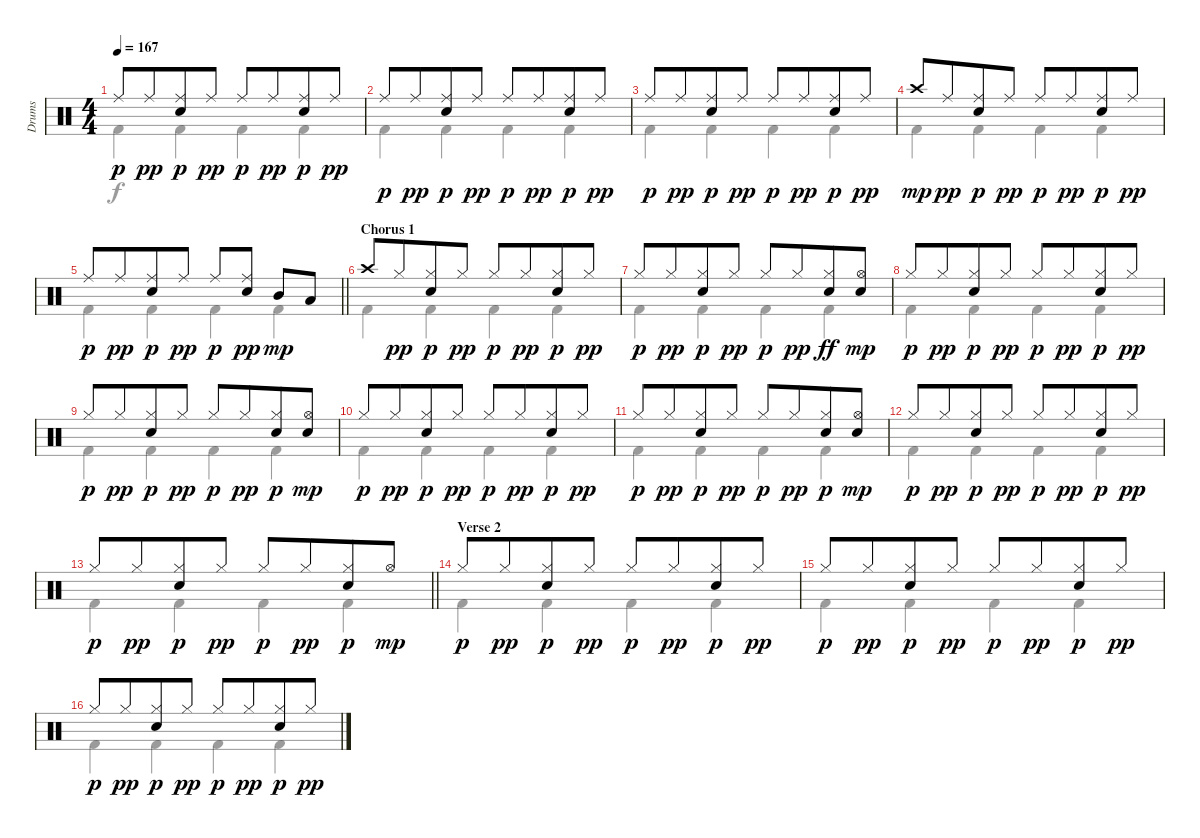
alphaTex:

\track ("Drums" "Drums") {instrument percussion}
\staff {score}
\articulation defaults
\voice
\ts (4 4)
\tempo 167
\clef neutral
\ks aminor "Ride (middle)".8{dy p} "Ride (middle)".8{dy pp beam merge}
("Ride (middle)" "Electric Snare (hit)").8{dy p} "Ride (middle)".8{dy pp} "Ride (middle)".8{dy p} "Ride (middle)".8{dy pp beam merge} ("Ride (middle)" "Electric Snare (hit)").8{dy p} "Ride (middle)".8{dy pp} |
"Ride (middle)".8{dy p} "Ride (middle)".8{dy pp beam merge} ("Ride (middle)" "Electric Snare (hit)").8{dy p} "Ride (middle)".8{dy pp} "Ride (middle)".8{dy p} "Ride (middle)".8{dy pp beam merge} ("Ride (middle)" "Electric Snare (hit)").8{dy p} "Ride (middle)".8{dy pp} |
"Ride (middle)".8{dy p} "Ride (middle)".8{dy pp beam merge} ("Ride (middle)" "Electric Snare (hit)").8{dy p} "Ride (middle)".8{dy pp} "Ride (middle)".8{dy p} "Ride (middle)".8{dy pp beam merge} ("Ride (middle)" "Electric Snare (hit)").8{dy p} "Ride (middle)".8{dy pp} |
"Crash high (hit)".8{dy mp} "Ride (middle)".8{dy pp beam merge} ("Ride (middle)" "Electric Snare (hit)").8{dy p} "Ride (middle)".8{dy pp} "Ride (middle)".8{dy p} "Ride (middle)".8{dy pp beam merge} ("Ride (middle)" "Electric Snare (hit)").8{dy p} "Ride (middle)".8{dy pp} |
\barLineRight lightlight "Ride (middle)".8{dy p} "Ride (middle)".8{dy pp beam merge}
("Ride (middle)" "Electric Snare (hit)").8{dy p} "Ride (middle)".8{dy pp} "Ride (middle)".8{dy p} ("Ride (middle)" "Electric Snare (hit)").8{dy pp} "Mid Tom (hit)".8{dy mp} "Low Tom (hit)".8 |
\section ("" "Chorus 1")
"Crash high (hit)".8 "Hi-Hat (closed)".8{dy pp beam merge} ("Hi-Hat (closed)" "Electric Snare (hit)").8{dy p} "Hi-Hat (closed)".8{dy pp} "Hi-Hat (closed)".8{dy p} "Hi-Hat (closed)".8{dy pp beam merge} ("Hi-Hat (closed)" "Electric Snare (hit)").8{dy p} "Hi-Hat (closed)".8{dy pp} |
"Hi-Hat (closed)".8{dy p} "Hi-Hat (closed)".8{dy pp beam merge} ("Hi-Hat (closed)" "Electric Snare (hit)").8{dy p} "Hi-Hat (closed)".8{dy pp} "Hi-Hat (closed)".8{dy p} "Hi-Hat (closed)".8{dy pp beam merge} ("Hi-Hat (closed)" "Electric Snare (hit)").8{dy ff} ("Hi-Hat (open)" "Electric Snare (hit)").8{dy mp} |
"Hi-Hat (closed)".8{dy p} "Hi-Hat (closed)".8{dy pp beam merge} ("Hi-Hat (closed)" "Electric Snare (hit)").8{dy p} "Hi-Hat (closed)".8{dy pp} "Hi-Hat (closed)".8{dy p} "Hi-Hat (closed)".8{dy pp beam merge} ("Hi-Hat (closed)" "Electric Snare (hit)").8{dy p} "Hi-Hat (closed)".8{dy pp} |
"Hi-Hat (closed)".8{dy p} "Hi-Hat (closed)".8{dy pp beam merge} ("Hi-Hat (closed)" "Electric Snare (hit)").8{dy p} "Hi-Hat (closed)".8{dy pp} "Hi-Hat (closed)".8{dy p} "Hi-Hat (closed)".8{dy pp beam merge} ("Hi-Hat (closed)" "Electric Snare (hit)").8{dy p} ("Hi-Hat (open)" "Electric Snare (hit)").8{dy mp} |
"Hi-Hat (closed)".8{dy p} "Hi-Hat (closed)".8{dy pp beam merge} ("Hi-Hat (closed)" "Electric Snare (hit)").8{dy p} "Hi-Hat (closed)".8{dy pp} "Hi-Hat (closed)".8{dy p} "Hi-Hat (closed)".8{dy pp beam merge} ("Hi-Hat (closed)" "Electric Snare (hit)").8{dy p} "Hi-Hat (closed)".8{dy pp} |
"Hi-Hat (closed)".8{dy p} "Hi-Hat (closed)".8{dy pp beam merge} ("Hi-Hat (closed)" "Electric Snare (hit)").8{dy p} "Hi-Hat (closed)".8{dy pp} "Hi-Hat (closed)".8{dy p} "Hi-Hat (closed)".8{dy pp beam merge} ("Hi-Hat (closed)" "Electric Snare (hit)").8{dy p} ("Hi-Hat (open)" "Electric Snare (hit)").8{dy mp} |
"Hi-Hat (closed)".8{dy p} "Hi-Hat (closed)".8{dy pp beam merge} ("Hi-Hat (closed)" "Electric Snare (hit)").8{dy p} "Hi-Hat (closed)".8{dy pp} "Hi-Hat (closed)".8{dy p} "Hi-Hat (closed)".8{dy pp beam merge} ("Hi-Hat (closed)" "Electric Snare (hit)").8{dy p} "Hi-Hat (closed)".8{dy pp} |
\barLineRight lightlight "Hi-Hat (closed)".8{dy p} "Hi-Hat (closed)".8{dy pp beam merge}
("Hi-Hat (closed)" "Electric Snare (hit)").8{dy p} "Hi-Hat (closed)".8{dy pp} "Hi-Hat (closed)".8{dy p} "Hi-Hat (closed)".8{dy pp beam merge} ("Hi-Hat (closed)" "Electric Snare (hit)").8{dy p} "Hi-Hat (open)".8{dy mp} |
\section ("" "Verse 2")
"Hi-Hat (closed)".8{dy p} "Hi-Hat (closed)".8{dy pp beam merge} ("Hi-Hat (closed)" "Electric Snare (hit)").8{dy p} "Hi-Hat (closed)".8{dy pp} "Hi-Hat (closed)".8{dy p} "Hi-Hat (closed)".8{dy pp beam merge} ("Hi-Hat (closed)" "Electric Snare (hit)").8{dy p} "Hi-Hat (closed)".8{dy pp} |
"Hi-Hat (closed)".8{dy p} "Hi-Hat (closed)".8{dy pp beam merge} ("Hi-Hat (closed)" "Electric Snare (hit)").8{dy p} "Hi-Hat (closed)".8{dy pp} "Hi-Hat (closed)".8{dy p} "Hi-Hat (closed)".8{dy pp beam merge} ("Hi-Hat (closed)" "Electric Snare (hit)").8{dy p} "Hi-Hat (closed)".8{dy pp} |
"Hi-Hat (closed)".8{dy p} "Hi-Hat (closed)".8{dy pp beam merge} ("Hi-Hat (closed)" "Electric Snare (hit)").8{dy p} "Hi-Hat (closed)".8{dy pp} "Hi-Hat (closed)".8{dy p} "Hi-Hat (closed)".8{dy pp beam merge} ("Hi-Hat (closed)" "Electric Snare (hit)").8{dy p} "Hi-Hat (closed)".8{dy pp}
\voice
\clef neutral
\ottava regular
\simile none
\ks aminor "Kick (hit) 2".4{dy f} "Kick (hit) 2".4 "Kick (hit) 2".4 "Kick (hit) 2".4
|
"Kick (hit) 2".4 "Kick (hit) 2".4 "Kick (hit) 2".4 "Kick (hit) 2".4 |
"Kick (hit) 2".4 "Kick (hit) 2".4 "Kick (hit) 2".4 "Kick (hit) 2".4 |
"Kick (hit) 2".4 "Kick (hit) 2".4 "Kick (hit) 2".4 "Kick (hit) 2".4 |
\barLineRight lightlight "Kick (hit) 2".4 "Kick (hit) 2".4 "Kick (hit) 2".4 "Kick (hit) 2".4
|
"Kick (hit) 2".4 "Kick (hit) 2".4 "Kick (hit) 2".4 "Kick (hit) 2".4 |
"Kick (hit) 2".4 "Kick (hit) 2".4 "Kick (hit) 2".4 "Kick (hit) 2".4 |
"Kick (hit) 2".4 "Kick (hit) 2".4 "Kick (hit) 2".4 "Kick (hit) 2".4 |
"Kick (hit) 2".4 "Kick (hit) 2".4 "Kick (hit) 2".4 "Kick (hit) 2".4 |
"Kick (hit) 2".4 "Kick (hit) 2".4 "Kick (hit) 2".4 "Kick (hit) 2".4 |
"Kick (hit) 2".4 "Kick (hit) 2".4 "Kick (hit) 2".4 "Kick (hit) 2".4 |
"Kick (hit) 2".4 "Kick (hit) 2".4 "Kick (hit) 2".4 "Kick (hit) 2".4 |
\barLineRight lightlight "Kick (hit) 2".4 "Kick (hit) 2".4 "Kick (hit) 2".4 "Kick (hit) 2".4
|
"Kick (hit) 2".4 "Kick (hit) 2".4 "Kick (hit) 2".4 "Kick (hit) 2".4 |
"Kick (hit) 2".4 "Kick (hit) 2".4 "Kick (hit) 2".4 "Kick (hit) 2".4 |
"Kick (hit) 2".4 "Kick (hit) 2".4 "Kick (hit) 2".4 "Kick (hit) 2".4
